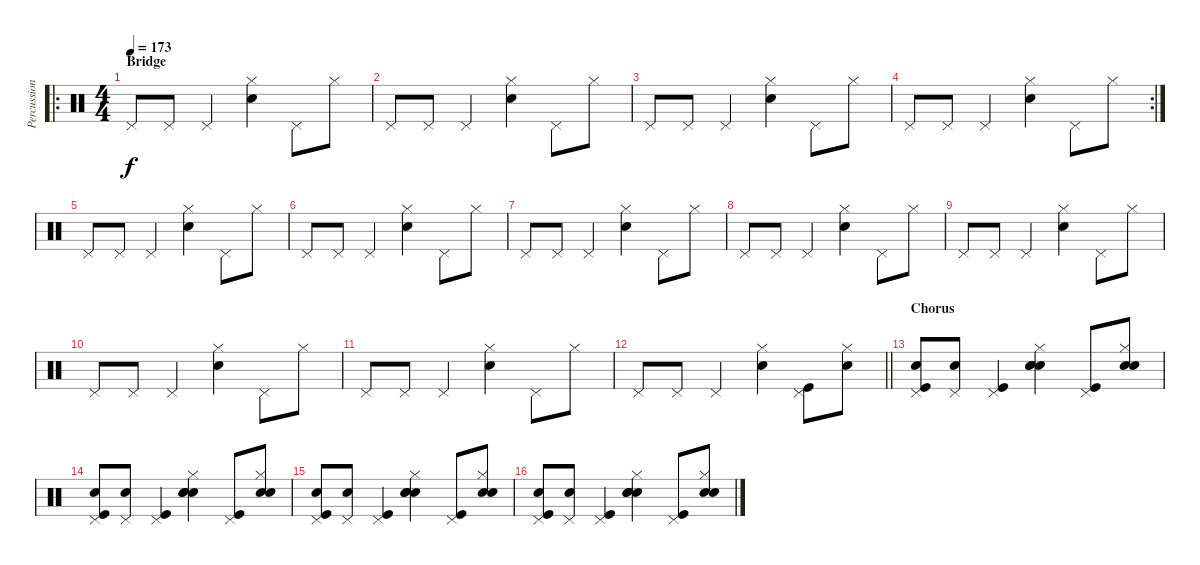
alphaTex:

\track ("Percussion" "Percussion") {instrument percussion}
\staff {score}
\articulation defaults
\ro
\ts (4 4)
\section ("" "Bridge")
\tempo 173
\clef neutral
\ks c "Pedal Hi-Hat (hit)".8{dy f} "Pedal Hi-Hat (hit)".8 "Pedal Hi-Hat (hit)".4
("Hand Clap (hit)" "Hi-Hat (closed)").4 "Pedal Hi-Hat (hit)".8 "Hi-Hat (closed)".8 |
"Pedal Hi-Hat (hit)".8 "Pedal Hi-Hat (hit)".8 "Pedal Hi-Hat (hit)".4 ("Hand Clap (hit)" "Hi-Hat (closed)").4 "Pedal Hi-Hat (hit)".8 "Hi-Hat (closed)".8 |
"Pedal Hi-Hat (hit)".8 "Pedal Hi-Hat (hit)".8 "Pedal Hi-Hat (hit)".4 ("Hand Clap (hit)" "Hi-Hat (closed)").4 "Pedal Hi-Hat (hit)".8 "Hi-Hat (closed)".8 |
\rc 2 "Pedal Hi-Hat (hit)".8 "Pedal Hi-Hat (hit)".8 "Pedal Hi-Hat (hit)".4
("Hand Clap (hit)" "Hi-Hat (closed)").4 "Pedal Hi-Hat (hit)".8 "Hi-Hat (closed)".8 |
"Pedal Hi-Hat (hit)".8 "Pedal Hi-Hat (hit)".8 "Pedal Hi-Hat (hit)".4 ("Hand Clap (hit)" "Hi-Hat (closed)").4 "Pedal Hi-Hat (hit)".8 "Hi-Hat (closed)".8 |
"Pedal Hi-Hat (hit)".8 "Pedal Hi-Hat (hit)".8 "Pedal Hi-Hat (hit)".4 ("Hand Clap (hit)" "Hi-Hat (closed)").4 "Pedal Hi-Hat (hit)".8 "Hi-Hat (closed)".8 |
"Pedal Hi-Hat (hit)".8 "Pedal Hi-Hat (hit)".8 "Pedal Hi-Hat (hit)".4 ("Hand Clap (hit)" "Hi-Hat (closed)").4 "Pedal Hi-Hat (hit)".8 "Hi-Hat (closed)".8 |
"Pedal Hi-Hat (hit)".8 "Pedal Hi-Hat (hit)".8 "Pedal Hi-Hat (hit)".4 ("Hand Clap (hit)" "Hi-Hat (closed)").4 "Pedal Hi-Hat (hit)".8 "Hi-Hat (closed)".8 |
"Pedal Hi-Hat (hit)".8 "Pedal Hi-Hat (hit)".8 "Pedal Hi-Hat (hit)".4 ("Hand Clap (hit)" "Hi-Hat (closed)").4 "Pedal Hi-Hat (hit)".8 "Hi-Hat (closed)".8 |
"Pedal Hi-Hat (hit)".8 "Pedal Hi-Hat (hit)".8 "Pedal Hi-Hat (hit)".4 ("Hand Clap (hit)" "Hi-Hat (closed)").4 "Pedal Hi-Hat (hit)".8 "Hi-Hat (closed)".8 |
"Pedal Hi-Hat (hit)".8 "Pedal Hi-Hat (hit)".8 "Pedal Hi-Hat (hit)".4 ("Hand Clap (hit)" "Hi-Hat (closed)").4 "Pedal Hi-Hat (hit)".8 "Hi-Hat (closed)".8 |
\barLineRight lightlight "Pedal Hi-Hat (hit)".8 "Pedal Hi-Hat (hit)".8 "Pedal Hi-Hat (hit)".4
("Hand Clap (hit)" "Hi-Hat (closed)").4 ("Pedal Hi-Hat (hit)" "Kick (hit)").8 ("Hi-Hat (closed)" "Electric Snare (hit)").8 |
\section ("" "Chorus")
("Hand Clap (hit)" "Pedal Hi-Hat (hit)" "Kick (hit)").8 ("Pedal Hi-Hat (hit)" "Electric Snare (hit)").8 ("Pedal Hi-Hat (hit)" "Kick (hit)").4 ("Hand Clap (hit)" "Hand Clap (hit)" "Hi-Hat (closed)" "Electric Snare (hit)").4 ("Pedal Hi-Hat (hit)" "Kick (hit)").8 ("Hand Clap (hit)" "Hi-Hat (closed)" "Electric Snare (hit)").8 |
("Hand Clap (hit)" "Pedal Hi-Hat (hit)" "Kick (hit)").8 ("Pedal Hi-Hat (hit)" "Electric Snare (hit)").8 ("Pedal Hi-Hat (hit)" "Kick (hit)").4 ("Hand Clap (hit)" "Hand Clap (hit)" "Hi-Hat (closed)" "Electric Snare (hit)").4 ("Pedal Hi-Hat (hit)" "Kick (hit)").8 ("Hand Clap (hit)" "Hi-Hat (closed)" "Electric Snare (hit)").8 |
("Hand Clap (hit)" "Pedal Hi-Hat (hit)" "Kick (hit)").8 ("Pedal Hi-Hat (hit)" "Electric Snare (hit)").8 ("Pedal Hi-Hat (hit)" "Kick (hit)").4 ("Hand Clap (hit)" "Hand Clap (hit)" "Hi-Hat (closed)" "Electric Snare (hit)").4 ("Pedal Hi-Hat (hit)" "Kick (hit)").8 ("Hand Clap (hit)" "Hi-Hat (closed)" "Electric Snare (hit)").8 |
("Hand Clap (hit)" "Pedal Hi-Hat (hit)" "Kick (hit)").8 ("Pedal Hi-Hat (hit)" "Electric Snare (hit)").8 ("Pedal Hi-Hat (hit)" "Kick (hit)").4 ("Hand Clap (hit)" "Hand Clap (hit)" "Hi-Hat (closed)" "Electric Snare (hit)").4 ("Pedal Hi-Hat (hit)" "Kick (hit)").8 ("Hand Clap (hit)" "Hi-Hat (closed)" "Electric Snare (hit)").8
